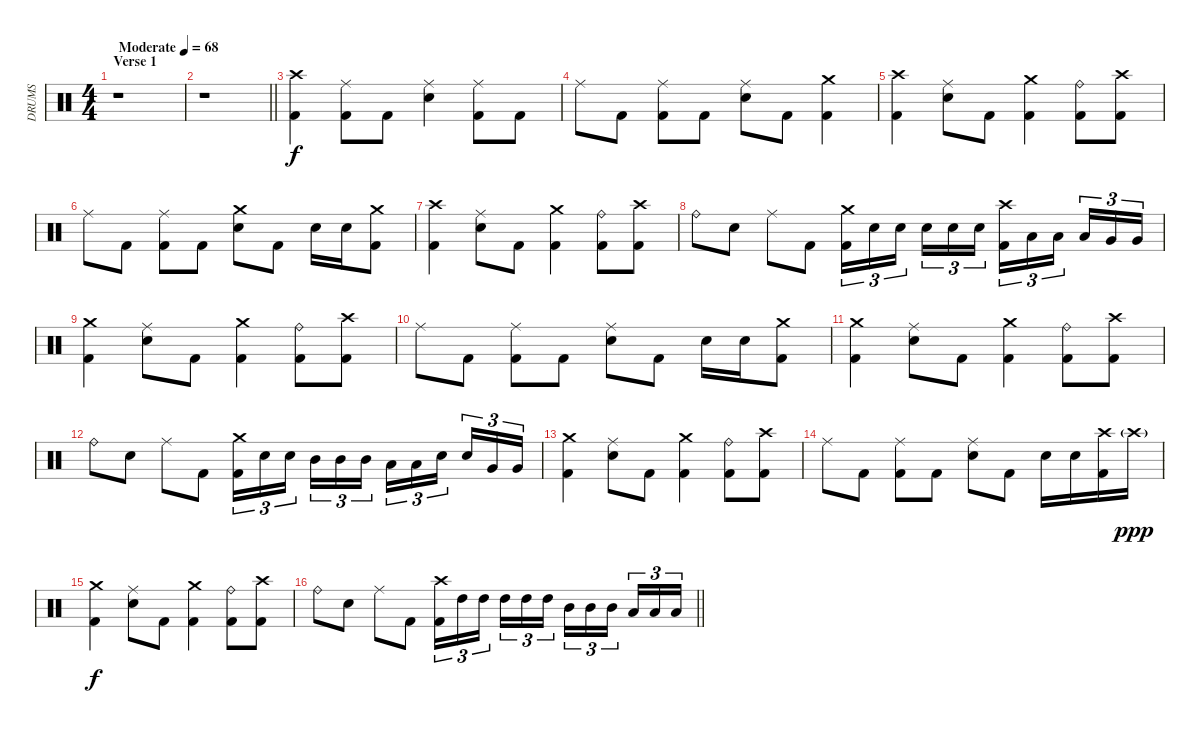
\track ("DRUMS" "DRUMS") {instrument percussion}
\staff {score}
\articulation defaults
\ts (4 4)
\section ("" "Verse 1")
\tempo (68 "Moderate")
\clef neutral
\ks c
r.1{dy f} |
\barLineRight lightlight
r.1 |
("Crash high (hit)" "Kick (hit) 2").4 ("Ride (middle)" "Kick (hit) 2").8 "Kick (hit) 2".8 ("Ride (middle)" "Snare (hit) 2").4 ("Ride (middle)" "Kick (hit) 2").8 "Kick (hit) 2".8 |
"Ride (middle)".8 "Kick (hit) 2".8 ("Ride (middle)" "Kick (hit) 2").8 "Kick (hit) 2".8 ("Ride (middle)" "Snare (hit) 2").8 "Kick (hit) 2".8 ("Crash medium (hit)" "Kick (hit) 2").4 |
("Crash high (hit)" "Kick (hit) 2").4 ("Ride (middle)" "Snare (hit) 2").8 "Kick (hit) 2".8 ("Crash medium (hit)" "Kick (hit) 2").4 ("Ride (bell)" "Kick (hit) 2").8 ("Crash high (hit)" "Kick (hit) 2").8 |
"Ride (middle)".8 "Kick (hit) 2".8 ("Ride (middle)" "Kick (hit) 2").8 "Kick (hit) 2".8 ("Crash medium (hit)" "Snare (hit) 2").8 "Kick (hit) 2".8 "Snare (hit) 2".16 "Snare (hit) 2".16 ("Crash medium (hit)" "Kick (hit) 2").8 |
("Crash high (hit)" "Kick (hit) 2").4 ("Ride (middle)" "Snare (hit) 2").8 "Kick (hit) 2".8 ("Crash medium (hit)" "Kick (hit) 2").4 ("Ride (bell)" "Kick (hit) 2").8 ("Crash high (hit)" "Kick (hit) 2").8 |
"Ride (bell)".8 "Snare (hit) 2".8 "Ride (middle)".8 "Kick (hit) 2".8 ("Crash medium (hit)" "Kick (hit) 2").16{tu (3 2)} "Snare (hit) 2".16{tu (3 2)} "Snare (hit) 2".16{tu (3 2) beam splitsecondary} "Snare (hit) 2".16{tu (3 2)} "Snare (hit) 2".16{tu (3 2)} "Snare (hit) 2".16{tu (3 2)} ("Crash high (hit)" "Kick (hit) 2").16{tu (3 2)} "Low Tom (hit)".16{tu (3 2)} "Low Tom (hit)".16{tu (3 2) beam splitsecondary} "Low Tom (hit)".16{tu (3 2)} "Very Low Tom (hit)".16{tu (3 2)} "Very Low Tom (hit)".16{tu (3 2)} |
("Crash medium (hit)" "Kick (hit) 2").4 ("Ride (middle)" "Snare (hit) 2").8 "Kick (hit) 2".8 ("Crash medium (hit)" "Kick (hit) 2").4 ("Ride (bell)" "Kick (hit) 2").8 ("Crash high (hit)" "Kick (hit) 2").8 |
"Ride (middle)".8 "Kick (hit) 2".8 ("Ride (middle)" "Kick (hit) 2").8 "Kick (hit) 2".8 ("Ride (middle)" "Snare (hit) 2").8 "Kick (hit) 2".8 "Snare (hit) 2".16 "Snare (hit) 2".16 ("Crash medium (hit)" "Kick (hit) 2").8 |
("Crash medium (hit)" "Kick (hit) 2").4 ("Ride (middle)" "Snare (hit) 2").8 "Kick (hit) 2".8 ("Crash medium (hit)" "Kick (hit) 2").4 ("Ride (bell)" "Kick (hit) 2").8 ("Crash high (hit)" "Kick (hit) 2").8 |
"Ride (bell)".8 "Snare (hit) 2".8 "Ride (middle)".8 "Kick (hit) 2".8 ("Crash medium (hit)" "Kick (hit) 2").16{tu (3 2)} "Snare (hit) 2".16{tu (3 2)} "Snare (hit) 2".16{tu (3 2) beam splitsecondary} "Mid Tom (hit)".16{tu (3 2)} "Mid Tom (hit)".16{tu (3 2)} "Mid Tom (hit)".16{tu (3 2)} "Low Tom (hit)".16{tu (3 2)} "Low Tom (hit)".16{tu (3 2)} "Snare (hit) 2".16{tu (3 2) beam splitsecondary} "Snare (hit) 2".16{tu (3 2)} "Very Low Tom (hit)".16{tu (3 2)} "Very Low Tom (hit)".16{tu (3 2)} |
("Crash medium (hit)" "Kick (hit) 2").4 ("Ride (middle)" "Snare (hit) 2").8 "Kick (hit) 2".8 ("Crash medium (hit)" "Kick (hit) 2").4 ("Ride (bell)" "Kick (hit) 2").8 ("Crash high (hit)" "Kick (hit) 2").8 |
"Ride (middle)".8 "Kick (hit) 2".8 ("Ride (middle)" "Kick (hit) 2").8 "Kick (hit) 2".8 ("Ride (middle)" "Snare (hit) 2").8 "Kick (hit) 2".8 "Snare (hit) 2".16 "Snare (hit) 2".16 ("Crash high (hit)" "Kick (hit) 2").16 "Crash high (hit)"{g}.16{dy ppp} |
("Crash medium (hit)" "Kick (hit) 2").4{dy f} ("Ride (middle)" "Snare (hit) 2").8 "Kick (hit) 2".8 ("Crash medium (hit)" "Kick (hit) 2").4 ("Ride (bell)" "Kick (hit) 2").8 ("Crash high (hit)" "Kick (hit) 2").8 |
\barLineRight lightlight "Ride (bell)".8 "Snare (hit) 2".8 "Ride (middle)".8 "Kick (hit) 2".8
("Crash high (hit)" "Kick (hit) 2").16{tu (3 2)} "High Tom (hit)".16{tu (3 2)} "High Tom (hit)".16{tu (3 2) beam splitsecondary} "High Tom (hit)".16{tu (3 2)} "High Tom (hit)".16{tu (3 2)} "High Tom (hit)".16{tu (3 2)} "Mid Tom (hit)".16{tu (3 2)} "Mid Tom (hit)".16{tu (3 2)} "Mid Tom (hit)".16{tu (3 2) beam splitsecondary} "Low Tom (hit)".16{tu (3 2)} "Low Tom (hit)".16{tu (3 2)} "Low Tom (hit)".16{tu (3 2)}
